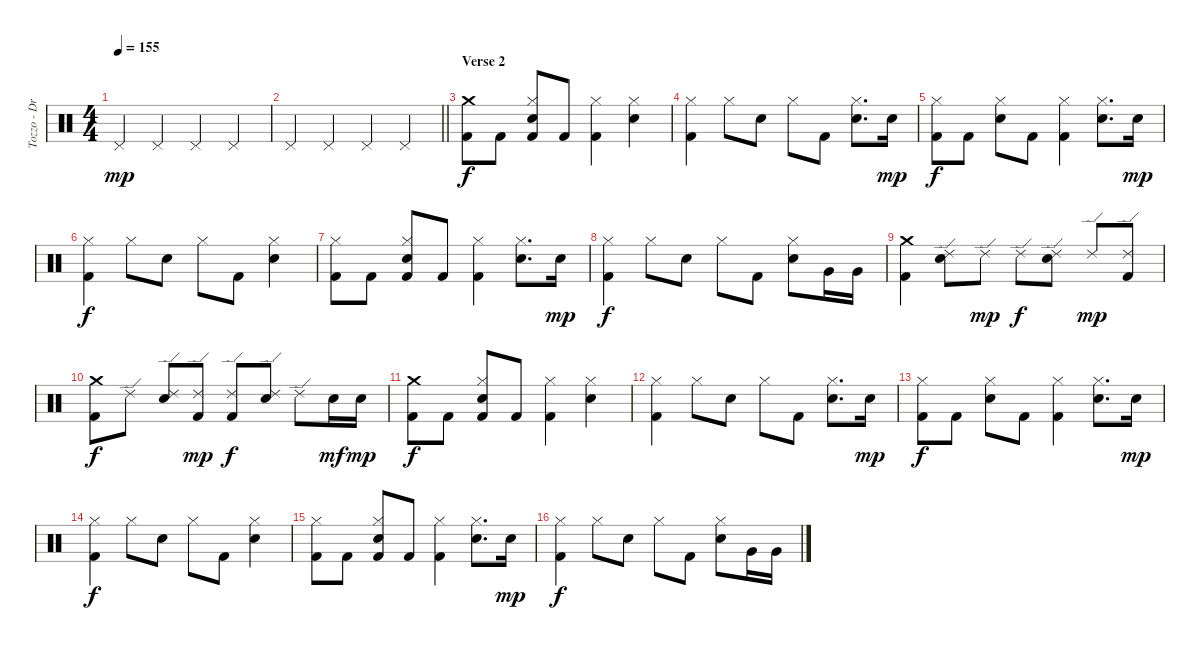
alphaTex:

\track ("Tozzo - Drums" "Tozzo - Dr") {instrument percussion}
\staff {score}
\articulation defaults
\ts (4 4)
\tempo 155
\clef neutral
\ks c "Pedal Hi-Hat (hit)".4{dy mp} "Pedal Hi-Hat (hit)".4 "Pedal Hi-Hat (hit)".4 "Pedal Hi-Hat (hit)".4
|
\barLineRight lightlight "Pedal Hi-Hat (hit)".4 "Pedal Hi-Hat (hit)".4 "Pedal Hi-Hat (hit)".4 "Pedal Hi-Hat (hit)".4
|
\section ("" "Verse 2")
("Crash medium (hit)" "Kick (hit) 2").8{dy f} "Kick (hit) 2".8 ("Hi-Hat (closed)" "Snare (hit) 2" "Kick (hit) 2").8 "Kick (hit) 2".8 ("Hi-Hat (closed)" "Kick (hit) 2").4 ("Hi-Hat (closed)" "Snare (hit) 2").4 |
("Hi-Hat (closed)" "Kick (hit) 2").4 "Hi-Hat (closed)".8 "Snare (hit) 2".8 "Hi-Hat (closed)".8 "Kick (hit) 2".8 ("Hi-Hat (closed)" "Snare (hit) 2").8{d} "Snare (hit) 2".16{dy mp} |
("Hi-Hat (closed)" "Kick (hit) 2").8{dy f} "Kick (hit) 2".8 ("Hi-Hat (closed)" "Snare (hit) 2").8 "Kick (hit) 2".8 ("Hi-Hat (closed)" "Kick (hit) 2").4 ("Hi-Hat (closed)" "Snare (hit) 2").8{d} "Snare (hit) 2".16{dy mp} |
("Hi-Hat (closed)" "Kick (hit) 2").4{dy f} "Hi-Hat (closed)".8 "Snare (hit) 2".8 "Hi-Hat (closed)".8 "Kick (hit) 2".8 ("Hi-Hat (closed)" "Snare (hit) 2").4 |
("Hi-Hat (closed)" "Kick (hit) 2").8 "Kick (hit) 2".8 ("Hi-Hat (closed)" "Snare (hit) 2" "Kick (hit) 2").8 "Kick (hit) 2".8 ("Hi-Hat (closed)" "Kick (hit) 2").4 ("Hi-Hat (closed)" "Snare (hit) 2").8{d} "Snare (hit) 2".16{dy mp} |
("Hi-Hat (closed)" "Kick (hit) 2").4{dy f} "Hi-Hat (closed)".8 "Snare (hit) 2".8 "Hi-Hat (closed)".8 "Kick (hit) 2".8 ("Hi-Hat (closed)" "Snare (hit) 2").8 "Very Low Tom (hit)".16 "Very Low Tom (hit)".16 |
("Crash medium (hit)" "Kick (hit) 2").4 ("Ride (edge) 2" "Snare (hit) 2").8 "Ride (edge) 2".8{dy mp} "Ride (edge) 2".8{dy f} ("Ride (edge) 2" "Snare (hit) 2").8 "Ride (edge) 2".8{dy mp} ("Ride (edge) 2" "Kick (hit) 2").8 |
("Crash medium (hit)" "Kick (hit) 2").8{dy f} "Ride (edge) 2".8 ("Ride (edge) 2" "Snare (hit) 2").8 ("Ride (edge) 2" "Kick (hit) 2").8{dy mp} ("Ride (edge) 2" "Kick (hit) 2").8{dy f} ("Ride (edge) 2" "Snare (hit) 2").8 "Ride (edge) 2".8 "Snare (hit) 2".16{dy mf} "Snare (hit) 2".16{dy mp} |
("Crash medium (hit)" "Kick (hit) 2").8{dy f} "Kick (hit) 2".8 ("Hi-Hat (closed)" "Snare (hit) 2" "Kick (hit) 2").8 "Kick (hit) 2".8 ("Hi-Hat (closed)" "Kick (hit) 2").4 ("Hi-Hat (closed)" "Snare (hit) 2").4 |
("Hi-Hat (closed)" "Kick (hit) 2").4 "Hi-Hat (closed)".8 "Snare (hit) 2".8 "Hi-Hat (closed)".8 "Kick (hit) 2".8 ("Hi-Hat (closed)" "Snare (hit) 2").8{d} "Snare (hit) 2".16{dy mp} |
("Hi-Hat (closed)" "Kick (hit) 2").8{dy f} "Kick (hit) 2".8 ("Hi-Hat (closed)" "Snare (hit) 2").8 "Kick (hit) 2".8 ("Hi-Hat (closed)" "Kick (hit) 2").4 ("Hi-Hat (closed)" "Snare (hit) 2").8{d} "Snare (hit) 2".16{dy mp} |
("Hi-Hat (closed)" "Kick (hit) 2").4{dy f} "Hi-Hat (closed)".8 "Snare (hit) 2".8 "Hi-Hat (closed)".8 "Kick (hit) 2".8 ("Hi-Hat (closed)" "Snare (hit) 2").4 |
("Hi-Hat (closed)" "Kick (hit) 2").8 "Kick (hit) 2".8 ("Hi-Hat (closed)" "Snare (hit) 2" "Kick (hit) 2").8 "Kick (hit) 2".8 ("Hi-Hat (closed)" "Kick (hit) 2").4 ("Hi-Hat (closed)" "Snare (hit) 2").8{d} "Snare (hit) 2".16{dy mp} |
("Hi-Hat (closed)" "Kick (hit) 2").4{dy f} "Hi-Hat (closed)".8 "Snare (hit) 2".8 "Hi-Hat (closed)".8 "Kick (hit) 2".8 ("Hi-Hat (closed)" "Snare (hit) 2").8 "Very Low Tom (hit)".16 "Very Low Tom (hit)".16
